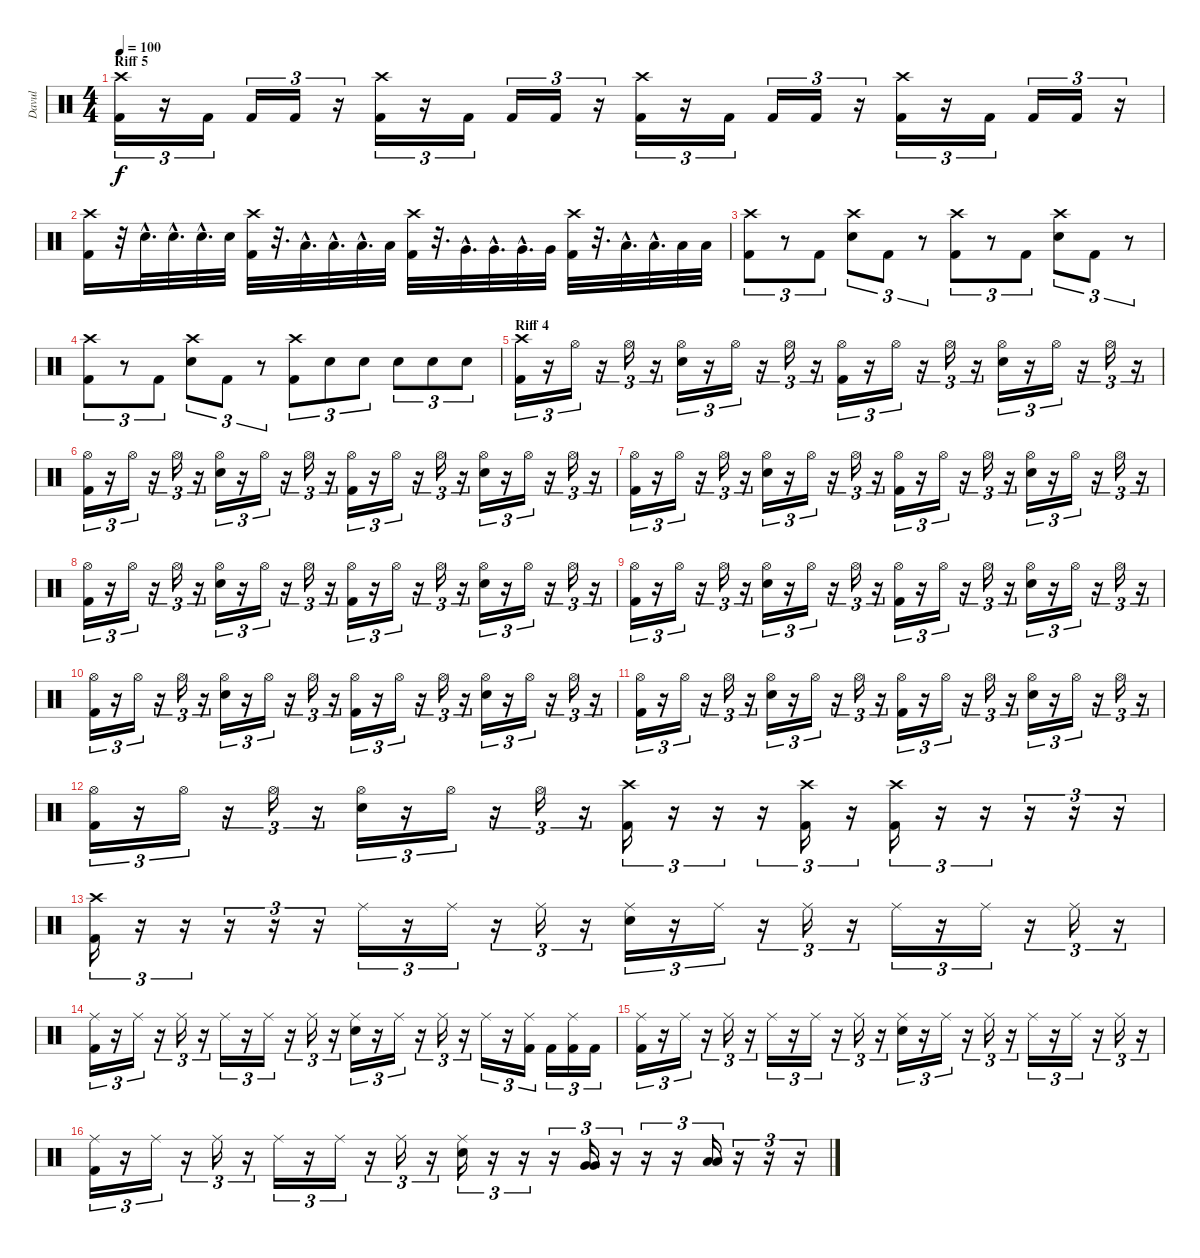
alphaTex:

\track ("Davul" "Davul") {instrument percussion}
\staff {score}
\articulation defaults
\ts (4 4)
\section ("" "Riff 5")
\tempo 100
\clef neutral
\ks c
("Crash high (hit)" "Kick (hit) 2").16{tu (3 2) dy f} r.16{tu (3 2)} "Kick (hit) 2".16{tu (3 2)} "Kick (hit) 2".16{tu (3 2)} "Kick (hit) 2".16{tu (3 2)} r.16{tu (3 2)} ("Crash high (hit)" "Kick (hit) 2").16{tu (3 2)} r.16{tu (3 2)} "Kick (hit) 2".16{tu (3 2)} "Kick (hit) 2".16{tu (3 2)} "Kick (hit) 2".16{tu (3 2)} r.16{tu (3 2)} ("Crash high (hit)" "Kick (hit) 2").16{tu (3 2)} r.16{tu (3 2)} "Kick (hit) 2".16{tu (3 2)} "Kick (hit) 2".16{tu (3 2)} "Kick (hit) 2".16{tu (3 2)} r.16{tu (3 2)} ("Crash high (hit)" "Kick (hit) 2").16{tu (3 2)} r.16{tu (3 2)} "Kick (hit) 2".16{tu (3 2)} "Kick (hit) 2".16{tu (3 2)} "Kick (hit) 2".16{tu (3 2)} r.16{tu (3 2)} |
("Crash high (hit)" "Kick (hit) 2").16 r.32 "Electric Snare (hit)"{hac}.32{d} "Electric Snare (hit)"{hac}.32{d} "Electric Snare (hit)"{hac}.32{d} "Electric Snare (hit)".32 ("Crash high (hit)" "Kick (hit) 2").32 r.32{d} "Low Tom (hit)"{hac}.32{d} "Low Tom (hit)"{hac}.32{d} "Low Tom (hit)"{hac}.32{d} "Low Tom (hit)".32 ("Crash high (hit)" "Kick (hit) 2").32 r.32{d} "Very Low Tom (hit)"{hac}.32{d} "Very Low Tom (hit)"{hac}.32{d} "Very Low Tom (hit)"{hac}.32{d} "Very Low Tom (hit)".32 ("Crash high (hit)" "Kick (hit) 2").32 r.32{d} "Low Floor Tom (hit)"{hac}.32{d} "Low Floor Tom (hit)"{hac}.32{d} "Low Floor Tom (hit)".32 "Low Floor Tom (hit)".32 |
("Crash high (hit)" "Kick (hit) 2").8{tu (3 2)} r.8{tu (3 2)} "Kick (hit) 2".8{tu (3 2)} ("Crash high (hit)" "Electric Snare (hit)").8{tu (3 2)} "Kick (hit) 2".8{tu (3 2)} r.8{tu (3 2)} ("Crash high (hit)" "Kick (hit) 2").8{tu (3 2)} r.8{tu (3 2)} "Kick (hit) 2".8{tu (3 2)} ("Crash high (hit)" "Electric Snare (hit)").8{tu (3 2)} "Kick (hit) 2".8{tu (3 2)} r.8{tu (3 2)} |
("Crash high (hit)" "Kick (hit) 2").8{tu (3 2)} r.8{tu (3 2)} "Kick (hit) 2".8{tu (3 2)} ("Crash high (hit)" "Electric Snare (hit)").8{tu (3 2)} "Kick (hit) 2".8{tu (3 2)} r.8{tu (3 2)} ("Crash high (hit)" "Kick (hit) 2").8{tu (3 2)} "Electric Snare (hit)".8{tu (3 2)} "Electric Snare (hit)".8{tu (3 2)} "Electric Snare (hit)".8{tu (3 2)} "Electric Snare (hit)".8{tu (3 2)} "Electric Snare (hit)".8{tu (3 2)} |
\section ("" "Riff 4")
("Crash high (hit)" "Kick (hit) 2").16{tu (3 2)} r.16{tu (3 2)} "Hi-Hat (open)".16{tu (3 2)} r.16{tu (3 2)} "Hi-Hat (open)".16{tu (3 2)} r.16{tu (3 2)} ("Hi-Hat (open)" "Electric Snare (hit)").16{tu (3 2)} r.16{tu (3 2)} "Hi-Hat (open)".16{tu (3 2)} r.16{tu (3 2)} "Hi-Hat (open)".16{tu (3 2)} r.16{tu (3 2)} ("Hi-Hat (open)" "Kick (hit) 2").16{tu (3 2)} r.16{tu (3 2)} "Hi-Hat (open)".16{tu (3 2)} r.16{tu (3 2)} "Hi-Hat (open)".16{tu (3 2)} r.16{tu (3 2)} ("Hi-Hat (open)" "Electric Snare (hit)").16{tu (3 2)} r.16{tu (3 2)} "Hi-Hat (open)".16{tu (3 2)} r.16{tu (3 2)} "Hi-Hat (open)".16{tu (3 2)} r.16{tu (3 2)} |
("Hi-Hat (open)" "Kick (hit) 2").16{tu (3 2)} r.16{tu (3 2)} "Hi-Hat (open)".16{tu (3 2)} r.16{tu (3 2)} "Hi-Hat (open)".16{tu (3 2)} r.16{tu (3 2)} ("Hi-Hat (open)" "Electric Snare (hit)").16{tu (3 2)} r.16{tu (3 2)} "Hi-Hat (open)".16{tu (3 2)} r.16{tu (3 2)} "Hi-Hat (open)".16{tu (3 2)} r.16{tu (3 2)} ("Hi-Hat (open)" "Kick (hit) 2").16{tu (3 2)} r.16{tu (3 2)} "Hi-Hat (open)".16{tu (3 2)} r.16{tu (3 2)} "Hi-Hat (open)".16{tu (3 2)} r.16{tu (3 2)} ("Hi-Hat (open)" "Electric Snare (hit)").16{tu (3 2)} r.16{tu (3 2)} "Hi-Hat (open)".16{tu (3 2)} r.16{tu (3 2)} "Hi-Hat (open)".16{tu (3 2)} r.16{tu (3 2)} |
("Hi-Hat (open)" "Kick (hit) 2").16{tu (3 2)} r.16{tu (3 2)} "Hi-Hat (open)".16{tu (3 2)} r.16{tu (3 2)} "Hi-Hat (open)".16{tu (3 2)} r.16{tu (3 2)} ("Hi-Hat (open)" "Electric Snare (hit)").16{tu (3 2)} r.16{tu (3 2)} "Hi-Hat (open)".16{tu (3 2)} r.16{tu (3 2)} "Hi-Hat (open)".16{tu (3 2)} r.16{tu (3 2)} ("Hi-Hat (open)" "Kick (hit) 2").16{tu (3 2)} r.16{tu (3 2)} "Hi-Hat (open)".16{tu (3 2)} r.16{tu (3 2)} "Hi-Hat (open)".16{tu (3 2)} r.16{tu (3 2)} ("Hi-Hat (open)" "Electric Snare (hit)").16{tu (3 2)} r.16{tu (3 2)} "Hi-Hat (open)".16{tu (3 2)} r.16{tu (3 2)} "Hi-Hat (open)".16{tu (3 2)} r.16{tu (3 2)} |
("Hi-Hat (open)" "Kick (hit) 2").16{tu (3 2)} r.16{tu (3 2)} "Hi-Hat (open)".16{tu (3 2)} r.16{tu (3 2)} "Hi-Hat (open)".16{tu (3 2)} r.16{tu (3 2)} ("Hi-Hat (open)" "Electric Snare (hit)").16{tu (3 2)} r.16{tu (3 2)} "Hi-Hat (open)".16{tu (3 2)} r.16{tu (3 2)} "Hi-Hat (open)".16{tu (3 2)} r.16{tu (3 2)} ("Hi-Hat (open)" "Kick (hit) 2").16{tu (3 2)} r.16{tu (3 2)} "Hi-Hat (open)".16{tu (3 2)} r.16{tu (3 2)} "Hi-Hat (open)".16{tu (3 2)} r.16{tu (3 2)} ("Hi-Hat (open)" "Electric Snare (hit)").16{tu (3 2)} r.16{tu (3 2)} "Hi-Hat (open)".16{tu (3 2)} r.16{tu (3 2)} "Hi-Hat (open)".16{tu (3 2)} r.16{tu (3 2)} |
("Hi-Hat (open)" "Kick (hit) 2").16{tu (3 2)} r.16{tu (3 2)} "Hi-Hat (open)".16{tu (3 2)} r.16{tu (3 2)} "Hi-Hat (open)".16{tu (3 2)} r.16{tu (3 2)} ("Hi-Hat (open)" "Electric Snare (hit)").16{tu (3 2)} r.16{tu (3 2)} "Hi-Hat (open)".16{tu (3 2)} r.16{tu (3 2)} "Hi-Hat (open)".16{tu (3 2)} r.16{tu (3 2)} ("Hi-Hat (open)" "Kick (hit) 2").16{tu (3 2)} r.16{tu (3 2)} "Hi-Hat (open)".16{tu (3 2)} r.16{tu (3 2)} "Hi-Hat (open)".16{tu (3 2)} r.16{tu (3 2)} ("Hi-Hat (open)" "Electric Snare (hit)").16{tu (3 2)} r.16{tu (3 2)} "Hi-Hat (open)".16{tu (3 2)} r.16{tu (3 2)} "Hi-Hat (open)".16{tu (3 2)} r.16{tu (3 2)} |
("Hi-Hat (open)" "Kick (hit) 2").16{tu (3 2)} r.16{tu (3 2)} "Hi-Hat (open)".16{tu (3 2)} r.16{tu (3 2)} "Hi-Hat (open)".16{tu (3 2)} r.16{tu (3 2)} ("Hi-Hat (open)" "Electric Snare (hit)").16{tu (3 2)} r.16{tu (3 2)} "Hi-Hat (open)".16{tu (3 2)} r.16{tu (3 2)} "Hi-Hat (open)".16{tu (3 2)} r.16{tu (3 2)} ("Hi-Hat (open)" "Kick (hit) 2").16{tu (3 2)} r.16{tu (3 2)} "Hi-Hat (open)".16{tu (3 2)} r.16{tu (3 2)} "Hi-Hat (open)".16{tu (3 2)} r.16{tu (3 2)} ("Hi-Hat (open)" "Electric Snare (hit)").16{tu (3 2)} r.16{tu (3 2)} "Hi-Hat (open)".16{tu (3 2)} r.16{tu (3 2)} "Hi-Hat (open)".16{tu (3 2)} r.16{tu (3 2)} |
("Hi-Hat (open)" "Kick (hit) 2").16{tu (3 2)} r.16{tu (3 2)} "Hi-Hat (open)".16{tu (3 2)} r.16{tu (3 2)} "Hi-Hat (open)".16{tu (3 2)} r.16{tu (3 2)} ("Hi-Hat (open)" "Electric Snare (hit)").16{tu (3 2)} r.16{tu (3 2)} "Hi-Hat (open)".16{tu (3 2)} r.16{tu (3 2)} "Hi-Hat (open)".16{tu (3 2)} r.16{tu (3 2)} ("Hi-Hat (open)" "Kick (hit) 2").16{tu (3 2)} r.16{tu (3 2)} "Hi-Hat (open)".16{tu (3 2)} r.16{tu (3 2)} "Hi-Hat (open)".16{tu (3 2)} r.16{tu (3 2)} ("Hi-Hat (open)" "Electric Snare (hit)").16{tu (3 2)} r.16{tu (3 2)} "Hi-Hat (open)".16{tu (3 2)} r.16{tu (3 2)} "Hi-Hat (open)".16{tu (3 2)} r.16{tu (3 2)} |
("Hi-Hat (open)" "Kick (hit) 2").16{tu (3 2)} r.16{tu (3 2)} "Hi-Hat (open)".16{tu (3 2)} r.16{tu (3 2)} "Hi-Hat (open)".16{tu (3 2)} r.16{tu (3 2)} ("Hi-Hat (open)" "Electric Snare (hit)").16{tu (3 2)} r.16{tu (3 2)} "Hi-Hat (open)".16{tu (3 2)} r.16{tu (3 2)} "Hi-Hat (open)".16{tu (3 2)} r.16{tu (3 2)} ("Crash high (hit)" "Kick (hit) 2").16{tu (3 2)} r.16{tu (3 2)} r.16{tu (3 2)} r.16{tu (3 2)} ("Crash high (hit)" "Kick (hit) 2").16{tu (3 2)} r.16{tu (3 2)} ("Crash high (hit)" "Kick (hit) 2").16{tu (3 2)} r.16{tu (3 2)} r.16{tu (3 2)} r.16{tu (3 2)} r.16{tu (3 2)} r.16{tu (3 2)} |
("Crash high (hit)" "Kick (hit) 2").16{tu (3 2)} r.16{tu (3 2)} r.16{tu (3 2)} r.16{tu (3 2)} r.16{tu (3 2)} r.16{tu (3 2)} "Ride (middle)".16{tu (3 2)} r.16{tu (3 2)} "Ride (middle)".16{tu (3 2)} r.16{tu (3 2)} "Ride (middle)".16{tu (3 2)} r.16{tu (3 2)} ("Ride (middle)" "Electric Snare (hit)").16{tu (3 2)} r.16{tu (3 2)} "Ride (middle)".16{tu (3 2)} r.16{tu (3 2)} "Ride (middle)".16{tu (3 2)} r.16{tu (3 2)} "Ride (middle)".16{tu (3 2)} r.16{tu (3 2)} "Ride (middle)".16{tu (3 2)} r.16{tu (3 2)} "Ride (middle)".16{tu (3 2)} r.16{tu (3 2)} |
("Ride (middle)" "Kick (hit) 2").16{tu (3 2)} r.16{tu (3 2)} "Ride (middle)".16{tu (3 2)} r.16{tu (3 2)} "Ride (middle)".16{tu (3 2)} r.16{tu (3 2)} "Ride (middle)".16{tu (3 2)} r.16{tu (3 2)} "Ride (middle)".16{tu (3 2)} r.16{tu (3 2)} "Ride (middle)".16{tu (3 2)} r.16{tu (3 2)} ("Ride (middle)" "Electric Snare (hit)").16{tu (3 2)} r.16{tu (3 2)} "Ride (middle)".16{tu (3 2)} r.16{tu (3 2)} "Ride (middle)".16{tu (3 2)} r.16{tu (3 2)} "Ride (middle)".16{tu (3 2)} r.16{tu (3 2)} ("Ride (middle)" "Kick (hit) 2").16{tu (3 2)} "Kick (hit) 2".16{tu (3 2)} ("Ride (middle)" "Kick (hit) 2").16{tu (3 2)} "Kick (hit) 2".16{tu (3 2)} |
("Ride (middle)" "Kick (hit) 2").16{tu (3 2)} r.16{tu (3 2)} "Ride (middle)".16{tu (3 2)} r.16{tu (3 2)} "Ride (middle)".16{tu (3 2)} r.16{tu (3 2)} "Ride (middle)".16{tu (3 2)} r.16{tu (3 2)} "Ride (middle)".16{tu (3 2)} r.16{tu (3 2)} "Ride (middle)".16{tu (3 2)} r.16{tu (3 2)} ("Ride (middle)" "Electric Snare (hit)").16{tu (3 2)} r.16{tu (3 2)} "Ride (middle)".16{tu (3 2)} r.16{tu (3 2)} "Ride (middle)".16{tu (3 2)} r.16{tu (3 2)} "Ride (middle)".16{tu (3 2)} r.16{tu (3 2)} "Ride (middle)".16{tu (3 2)} r.16{tu (3 2)} "Ride (middle)".16{tu (3 2)} r.16{tu (3 2)} |
("Ride (middle)" "Kick (hit) 2").16{tu (3 2)} r.16{tu (3 2)} "Ride (middle)".16{tu (3 2)} r.16{tu (3 2)} "Ride (middle)".16{tu (3 2)} r.16{tu (3 2)} "Ride (middle)".16{tu (3 2)} r.16{tu (3 2)} "Ride (middle)".16{tu (3 2)} r.16{tu (3 2)} "Ride (middle)".16{tu (3 2)} r.16{tu (3 2)} ("Ride (middle)" "Electric Snare (hit)").16{tu (3 2)} r.16{tu (3 2)} r.16{tu (3 2)} r.16{tu (3 2)} ("Very Low Tom (hit)" "Very Low Tom (hit)").16{tu (3 2)} r.16{tu (3 2)} r.16{tu (3 2)} r.16{tu (3 2)} ("Low Floor Tom (hit)" "Low Floor Tom (hit)").16{tu (3 2)} r.16{tu (3 2)} r.16{tu (3 2)} r.16{tu (3 2)}
